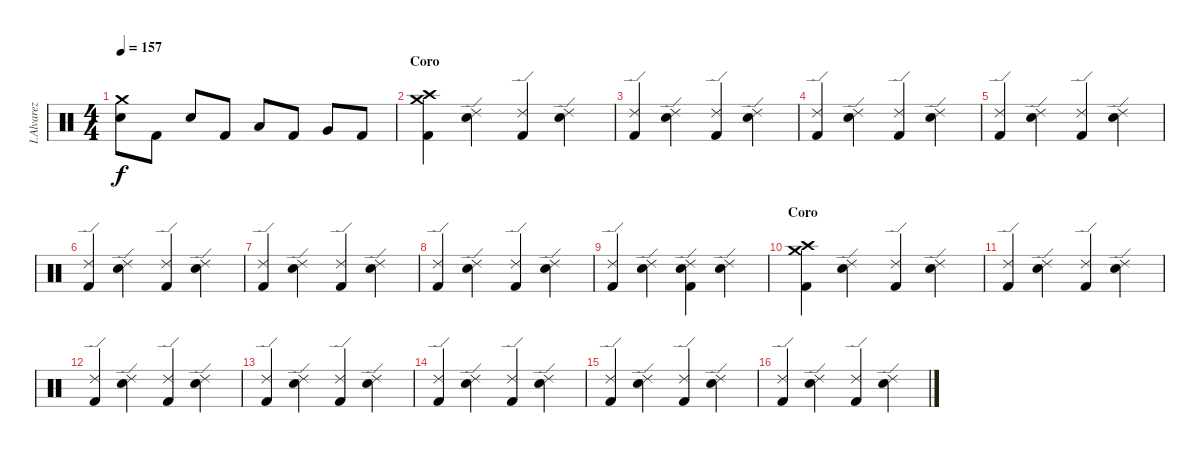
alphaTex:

\track ("I.Alvarez" "I.Alvarez") {instrument percussion}
\staff {score}
\articulation defaults
\ts (4 4)
\tempo 157
\clef neutral
\ks c
("Crash medium (hit)" "Electric Snare (hit)").8{dy f} "Kick (hit) 2".8 "Electric Snare (hit)".8 "Kick (hit) 2".8 "Low Tom (hit)".8 "Kick (hit) 2".8 "Very Low Tom (hit)".8 "Kick (hit) 2".8 |
\section ("" "Coro")
("Crash medium (hit)" "Crash high (hit)" "Kick (hit) 2").4 ("Ride (edge) 2" "Electric Snare (hit)").4 ("Ride (edge) 2" "Kick (hit) 2").4 ("Ride (edge) 2" "Electric Snare (hit)").4 |
("Ride (edge) 2" "Kick (hit) 2").4 ("Ride (edge) 2" "Electric Snare (hit)").4 ("Ride (edge) 2" "Kick (hit) 2").4 ("Ride (edge) 2" "Electric Snare (hit)").4 |
("Ride (edge) 2" "Kick (hit) 2").4 ("Ride (edge) 2" "Electric Snare (hit)").4 ("Ride (edge) 2" "Kick (hit) 2").4 ("Ride (edge) 2" "Electric Snare (hit)").4 |
("Ride (edge) 2" "Kick (hit) 2").4 ("Ride (edge) 2" "Electric Snare (hit)").4 ("Ride (edge) 2" "Kick (hit) 2").4 ("Ride (edge) 2" "Electric Snare (hit)").4 |
("Ride (edge) 2" "Kick (hit) 2").4 ("Ride (edge) 2" "Electric Snare (hit)").4 ("Ride (edge) 2" "Kick (hit) 2").4 ("Ride (edge) 2" "Electric Snare (hit)").4 |
("Ride (edge) 2" "Kick (hit) 2").4 ("Ride (edge) 2" "Electric Snare (hit)").4 ("Ride (edge) 2" "Kick (hit) 2").4 ("Ride (edge) 2" "Electric Snare (hit)").4 |
("Ride (edge) 2" "Kick (hit) 2").4 ("Ride (edge) 2" "Electric Snare (hit)").4 ("Ride (edge) 2" "Kick (hit) 2").4 ("Ride (edge) 2" "Electric Snare (hit)").4 |
("Ride (edge) 2" "Kick (hit) 2").4 ("Ride (edge) 2" "Electric Snare (hit)").4 ("Ride (edge) 2" "Electric Snare (hit)" "Kick (hit) 2").4 ("Ride (edge) 2" "Electric Snare (hit)").4 |
\section ("" "Coro")
("Crash medium (hit)" "Crash high (hit)" "Kick (hit) 2").4 ("Ride (edge) 2" "Electric Snare (hit)").4 ("Ride (edge) 2" "Kick (hit) 2").4 ("Ride (edge) 2" "Electric Snare (hit)").4 |
("Ride (edge) 2" "Kick (hit) 2").4 ("Ride (edge) 2" "Electric Snare (hit)").4 ("Ride (edge) 2" "Kick (hit) 2").4 ("Ride (edge) 2" "Electric Snare (hit)").4 |
("Ride (edge) 2" "Kick (hit) 2").4 ("Ride (edge) 2" "Electric Snare (hit)").4 ("Ride (edge) 2" "Kick (hit) 2").4 ("Ride (edge) 2" "Electric Snare (hit)").4 |
("Ride (edge) 2" "Kick (hit) 2").4 ("Ride (edge) 2" "Electric Snare (hit)").4 ("Ride (edge) 2" "Kick (hit) 2").4 ("Ride (edge) 2" "Electric Snare (hit)").4 |
("Ride (edge) 2" "Kick (hit) 2").4 ("Ride (edge) 2" "Electric Snare (hit)").4 ("Ride (edge) 2" "Kick (hit) 2").4 ("Ride (edge) 2" "Electric Snare (hit)").4 |
("Ride (edge) 2" "Kick (hit) 2").4 ("Ride (edge) 2" "Electric Snare (hit)").4 ("Ride (edge) 2" "Kick (hit) 2").4 ("Ride (edge) 2" "Electric Snare (hit)").4 |
("Ride (edge) 2" "Kick (hit) 2").4 ("Ride (edge) 2" "Electric Snare (hit)").4 ("Ride (edge) 2" "Kick (hit) 2").4 ("Ride (edge) 2" "Electric Snare (hit)").4
